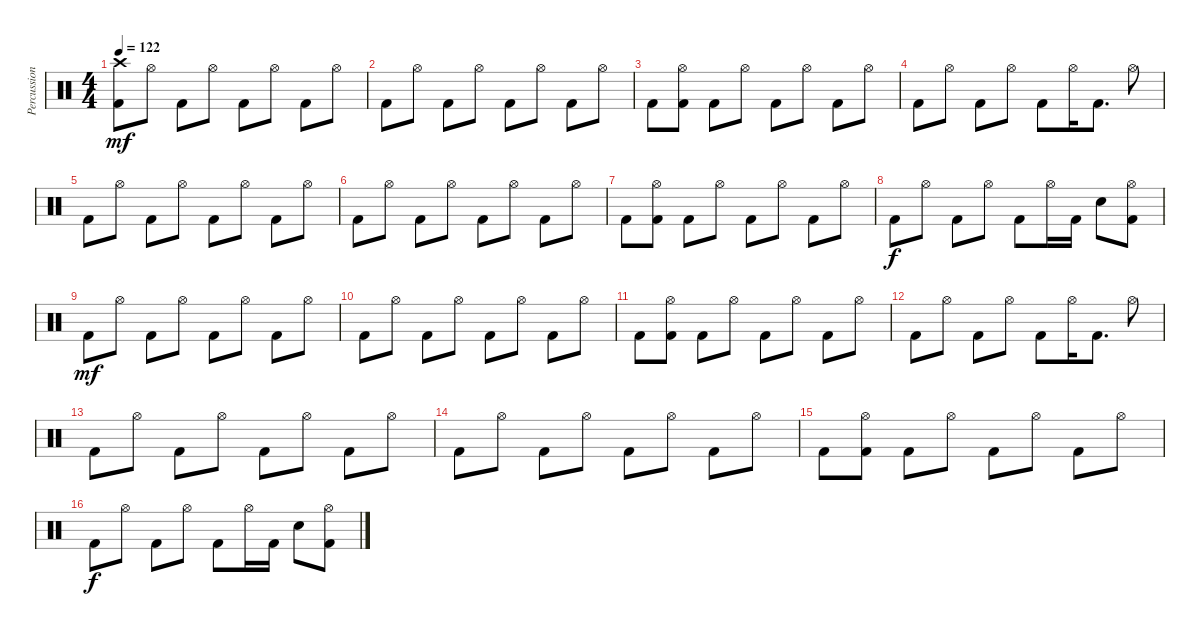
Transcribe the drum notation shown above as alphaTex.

\track ("Percussion" "Percussion") {instrument percussion}
\staff {score}
\articulation defaults
\ts (4 4)
\tempo 122
\clef neutral
\ks c
("Crash high (hit)" "Kick (hit) 2").8{dy mf} "Hi-Hat (open)".8 "Kick (hit) 2".8 "Hi-Hat (open)".8 "Kick (hit) 2".8 "Hi-Hat (open)".8 "Kick (hit) 2".8 "Hi-Hat (open)".8 |
"Kick (hit) 2".8 "Hi-Hat (open)".8 "Kick (hit) 2".8 "Hi-Hat (open)".8 "Kick (hit) 2".8 "Hi-Hat (open)".8 "Kick (hit) 2".8 "Hi-Hat (open)".8 |
"Kick (hit) 2".8 ("Hi-Hat (open)" "Kick (hit) 2").8 "Kick (hit) 2".8 "Hi-Hat (open)".8 "Kick (hit) 2".8 "Hi-Hat (open)".8 "Kick (hit) 2".8 "Hi-Hat (open)".8 |
"Kick (hit) 2".8 "Hi-Hat (open)".8 "Kick (hit) 2".8 "Hi-Hat (open)".8 "Kick (hit) 2".8 "Hi-Hat (open)".16 "Kick (hit) 2".8{d} "Hi-Hat (open)".8 |
"Kick (hit) 2".8 "Hi-Hat (open)".8 "Kick (hit) 2".8 "Hi-Hat (open)".8 "Kick (hit) 2".8 "Hi-Hat (open)".8 "Kick (hit) 2".8 "Hi-Hat (open)".8 |
"Kick (hit) 2".8 "Hi-Hat (open)".8 "Kick (hit) 2".8 "Hi-Hat (open)".8 "Kick (hit) 2".8 "Hi-Hat (open)".8 "Kick (hit) 2".8 "Hi-Hat (open)".8 |
"Kick (hit) 2".8 ("Hi-Hat (open)" "Kick (hit) 2").8 "Kick (hit) 2".8 "Hi-Hat (open)".8 "Kick (hit) 2".8 "Hi-Hat (open)".8 "Kick (hit) 2".8 "Hi-Hat (open)".8 |
"Kick (hit) 2".8{dy f} "Hi-Hat (open)".8 "Kick (hit) 2".8 "Hi-Hat (open)".8 "Kick (hit) 2".8 "Hi-Hat (open)".16 "Kick (hit) 2".16 "Electric Snare (hit)".8 ("Hi-Hat (open)" "Kick (hit) 2").8 |
"Kick (hit) 2".8{dy mf} "Hi-Hat (open)".8 "Kick (hit) 2".8 "Hi-Hat (open)".8 "Kick (hit) 2".8 "Hi-Hat (open)".8 "Kick (hit) 2".8 "Hi-Hat (open)".8 |
"Kick (hit) 2".8 "Hi-Hat (open)".8 "Kick (hit) 2".8 "Hi-Hat (open)".8 "Kick (hit) 2".8 "Hi-Hat (open)".8 "Kick (hit) 2".8 "Hi-Hat (open)".8 |
"Kick (hit) 2".8 ("Hi-Hat (open)" "Kick (hit) 2").8 "Kick (hit) 2".8 "Hi-Hat (open)".8 "Kick (hit) 2".8 "Hi-Hat (open)".8 "Kick (hit) 2".8 "Hi-Hat (open)".8 |
"Kick (hit) 2".8 "Hi-Hat (open)".8 "Kick (hit) 2".8 "Hi-Hat (open)".8 "Kick (hit) 2".8 "Hi-Hat (open)".16 "Kick (hit) 2".8{d} "Hi-Hat (open)".8 |
"Kick (hit) 2".8 "Hi-Hat (open)".8 "Kick (hit) 2".8 "Hi-Hat (open)".8 "Kick (hit) 2".8 "Hi-Hat (open)".8 "Kick (hit) 2".8 "Hi-Hat (open)".8 |
"Kick (hit) 2".8 "Hi-Hat (open)".8 "Kick (hit) 2".8 "Hi-Hat (open)".8 "Kick (hit) 2".8 "Hi-Hat (open)".8 "Kick (hit) 2".8 "Hi-Hat (open)".8 |
"Kick (hit) 2".8 ("Hi-Hat (open)" "Kick (hit) 2").8 "Kick (hit) 2".8 "Hi-Hat (open)".8 "Kick (hit) 2".8 "Hi-Hat (open)".8 "Kick (hit) 2".8 "Hi-Hat (open)".8 |
"Kick (hit) 2".8{dy f} "Hi-Hat (open)".8 "Kick (hit) 2".8 "Hi-Hat (open)".8 "Kick (hit) 2".8 "Hi-Hat (open)".16 "Kick (hit) 2".16 "Electric Snare (hit)".8 ("Hi-Hat (open)" "Kick (hit) 2").8
